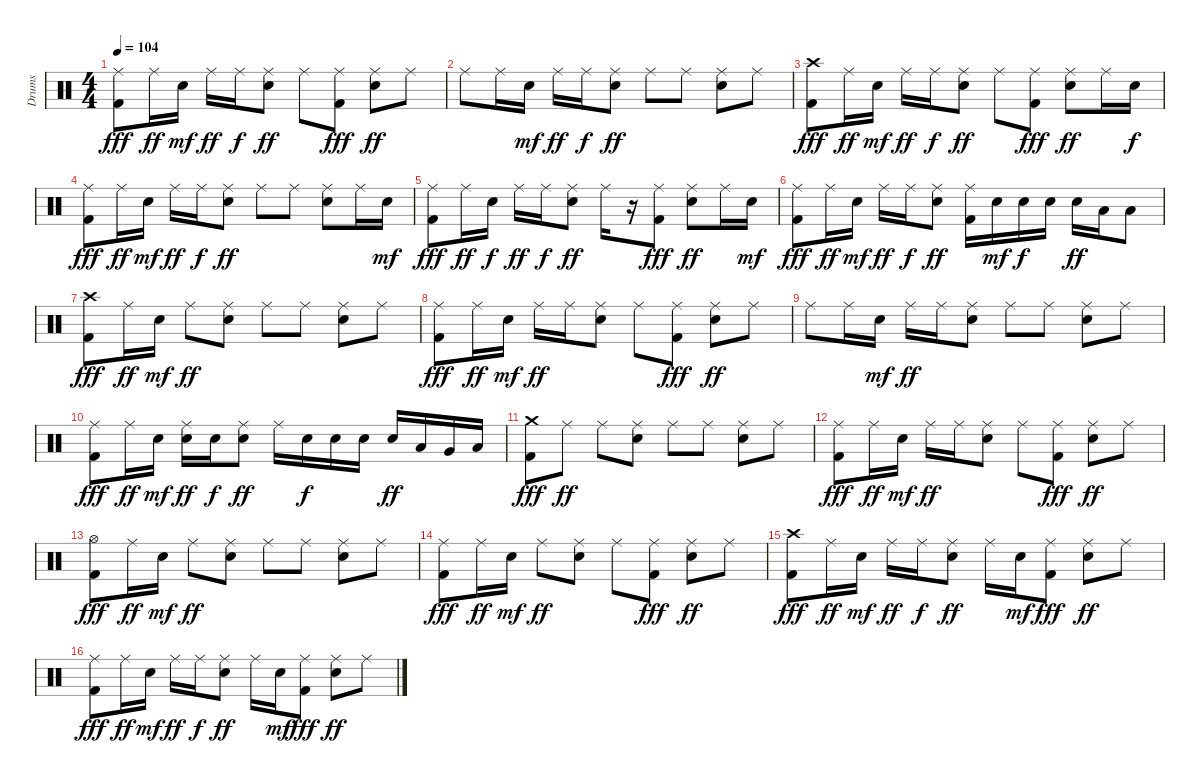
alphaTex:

\track ("Drums" "Drums") {instrument percussion}
\staff {score}
\articulation defaults
\ts (4 4)
\tempo 104
\clef neutral
\ks c
("Ride (middle)" "Kick (hit) 2").8{dy fff} "Ride (middle)".16{dy ff} "Electric Snare (hit)".16{dy mf} "Ride (middle)".16{dy ff} "Ride (middle)".16{dy f} ("Ride (middle)" "Electric Snare (hit)").8{dy ff} "Ride (middle)".8 ("Ride (middle)" "Kick (hit) 2").8{dy fff} ("Ride (middle)" "Electric Snare (hit)").8{dy ff} "Ride (middle)".8 |
"Ride (middle)".8 "Ride (middle)".16 "Electric Snare (hit)".16{dy mf} "Ride (middle)".16{dy ff} "Ride (middle)".16{dy f} ("Ride (middle)" "Electric Snare (hit)").8{dy ff} "Ride (middle)".8 "Ride (middle)".8 ("Ride (middle)" "Electric Snare (hit)").8 "Ride (middle)".8 |
("Crash high (hit)" "Kick (hit) 2").8{dy fff} "Ride (middle)".16{dy ff} "Electric Snare (hit)".16{dy mf} "Ride (middle)".16{dy ff} "Ride (middle)".16{dy f} ("Ride (middle)" "Electric Snare (hit)").8{dy ff} "Ride (middle)".8 ("Ride (middle)" "Kick (hit) 2").8{dy fff} ("Ride (middle)" "Electric Snare (hit)").8{dy ff} "Ride (middle)".16 "Electric Snare (hit)".16{dy f} |
("Ride (middle)" "Kick (hit) 2").8{dy fff} "Ride (middle)".16{dy ff} "Electric Snare (hit)".16{dy mf} "Ride (middle)".16{dy ff} "Ride (middle)".16{dy f} ("Ride (middle)" "Electric Snare (hit)").8{dy ff} "Ride (middle)".8 "Ride (middle)".8 ("Ride (middle)" "Electric Snare (hit)").8 "Ride (middle)".16 "Electric Snare (hit)".16{dy mf} |
("Ride (middle)" "Kick (hit) 2").8{dy fff} "Ride (middle)".16{dy ff} "Electric Snare (hit)".16{dy f} "Ride (middle)".16{dy ff} "Ride (middle)".16{dy f} ("Ride (middle)" "Electric Snare (hit)").8{dy ff} "Ride (middle)".16 r.16 ("Ride (middle)" "Kick (hit) 2").8{dy fff} ("Ride (middle)" "Electric Snare (hit)").8{dy ff} "Ride (middle)".16 "Electric Snare (hit)".16{dy mf} |
("Ride (middle)" "Kick (hit) 2").8{dy fff} "Ride (middle)".16{dy ff} "Electric Snare (hit)".16{dy mf} "Ride (middle)".16{dy ff} "Ride (middle)".16{dy f} ("Ride (middle)" "Electric Snare (hit)").8{dy ff} ("Ride (middle)" "Kick (hit) 2").16 "Electric Snare (hit)".16{dy mf} "Electric Snare (hit)".16{dy f} "Electric Snare (hit)".16 "Electric Snare (hit)".16{dy ff} "Low Tom (hit)".16 "Low Floor Tom (hit)".8 |
("Crash high (hit)" "Kick (hit) 2").8{dy fff} "Ride (middle)".16{dy ff} "Electric Snare (hit)".16{dy mf} "Ride (middle)".8{dy ff} ("Ride (middle)" "Electric Snare (hit)").8 "Ride (middle)".8 "Ride (middle)".8 ("Ride (middle)" "Electric Snare (hit)").8 "Ride (middle)".8 |
("Ride (middle)" "Kick (hit) 2").8{dy fff} "Ride (middle)".16{dy ff} "Electric Snare (hit)".16{dy mf} "Ride (middle)".16{dy ff} "Ride (middle)".16 ("Ride (middle)" "Electric Snare (hit)").8 "Ride (middle)".8 ("Ride (middle)" "Kick (hit) 2").8{dy fff} ("Ride (middle)" "Electric Snare (hit)").8{dy ff} "Ride (middle)".8 |
"Ride (middle)".8 "Ride (middle)".16 "Electric Snare (hit)".16{dy mf} "Ride (middle)".16{dy ff} "Ride (middle)".16 ("Ride (middle)" "Electric Snare (hit)").8 "Ride (middle)".8 "Ride (middle)".8 ("Ride (middle)" "Electric Snare (hit)").8 "Ride (middle)".8 |
("Ride (middle)" "Kick (hit) 2").8{dy fff} "Ride (middle)".16{dy ff} "Electric Snare (hit)".16{dy mf} ("Ride (middle)" "Electric Snare (hit)").16{dy ff} "Electric Snare (hit)".16{dy f} ("Ride (middle)" "Electric Snare (hit)").8{dy ff} "Ride (middle)".16 "Electric Snare (hit)".16{dy f} "Electric Snare (hit)".16 "Electric Snare (hit)".16 "Electric Snare (hit)".16{dy ff} "Low Tom (hit)".16 "Very Low Tom (hit)".16 "Low Floor Tom (hit)".16 |
("Crash medium (hit)" "Kick (hit) 2").8{dy fff} "Ride (middle)".8{dy ff} "Ride (middle)".8 ("Ride (middle)" "Electric Snare (hit)").8 "Ride (middle)".8 "Ride (middle)".8 ("Ride (middle)" "Electric Snare (hit)").8 "Ride (middle)".8 |
("Ride (middle)" "Kick (hit) 2").8{dy fff} "Ride (middle)".16{dy ff} "Electric Snare (hit)".16{dy mf} "Ride (middle)".16{dy ff} "Ride (middle)".16 ("Ride (middle)" "Electric Snare (hit)").8 "Ride (middle)".8 ("Ride (middle)" "Kick (hit) 2").8{dy fff} ("Ride (middle)" "Electric Snare (hit)").8{dy ff} "Ride (middle)".8 |
("Hi-Hat (open)" "Kick (hit) 2").8{dy fff} "Ride (middle)".16{dy ff} "Electric Snare (hit)".16{dy mf} "Ride (middle)".8{dy ff} ("Ride (middle)" "Electric Snare (hit)").8 "Ride (middle)".8 "Ride (middle)".8 ("Ride (middle)" "Electric Snare (hit)").8 "Ride (middle)".8 |
("Ride (middle)" "Kick (hit) 2").8{dy fff} "Ride (middle)".16{dy ff} "Electric Snare (hit)".16{dy mf} "Ride (middle)".8{dy ff} ("Ride (middle)" "Electric Snare (hit)").8 "Ride (middle)".8 ("Ride (middle)" "Kick (hit) 2").8{dy fff} ("Ride (middle)" "Electric Snare (hit)").8{dy ff} "Ride (middle)".8 |
("Crash high (hit)" "Kick (hit) 2").8{dy fff} "Ride (middle)".16{dy ff} "Electric Snare (hit)".16{dy mf} "Ride (middle)".16{dy ff} "Ride (middle)".16{dy f} ("Ride (middle)" "Electric Snare (hit)").8{dy ff} "Ride (middle)".16 "Electric Snare (hit)".16{dy mf} ("Ride (middle)" "Kick (hit) 2").8{dy fff} ("Ride (middle)" "Electric Snare (hit)").8{dy ff} "Ride (middle)".8 |
("Ride (middle)" "Kick (hit) 2").8{dy fff} "Ride (middle)".16{dy ff} "Electric Snare (hit)".16{dy mf} "Ride (middle)".16{dy ff} "Ride (middle)".16{dy f} ("Ride (middle)" "Electric Snare (hit)").8{dy ff} "Ride (middle)".16 "Electric Snare (hit)".16{dy mf} ("Ride (middle)" "Kick (hit) 2").8{dy fff} ("Ride (middle)" "Electric Snare (hit)").8{dy ff} "Ride (middle)".8
